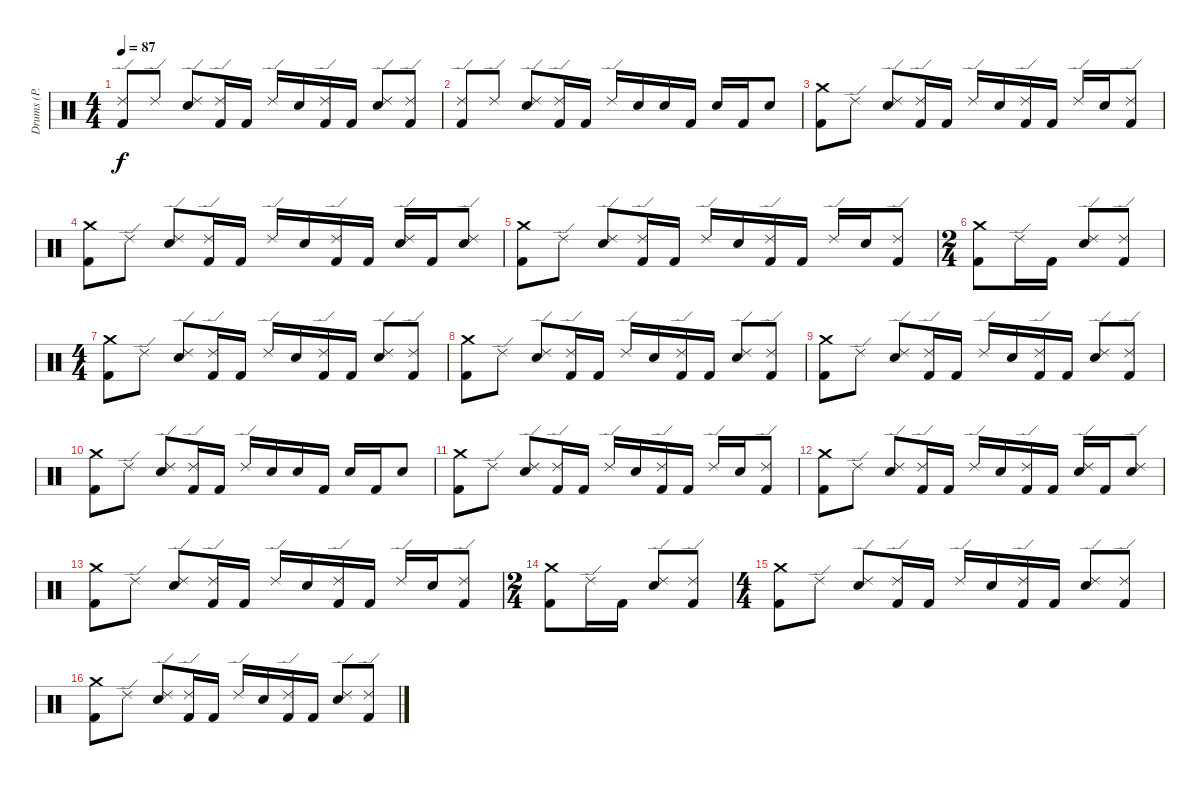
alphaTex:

\track ("Drums (P. Selway)" "Drums (P. ") {instrument percussion}
\staff {score}
\articulation defaults
\ts (4 4)
\tempo 87
\clef neutral
\ks c
("Ride (edge) 2" "Kick (hit) 2").8{dy f} "Ride (edge) 2".8 ("Ride (edge) 2" "Electric Snare (hit)").8 ("Ride (edge) 2" "Kick (hit) 2").16 "Kick (hit) 2".16 "Ride (edge) 2".16 "Electric Snare (hit)".16 ("Ride (edge) 2" "Kick (hit) 2").16 "Kick (hit) 2".16 ("Ride (edge) 2" "Electric Snare (hit)").8 ("Ride (edge) 2" "Kick (hit) 2").8 |
("Ride (edge) 2" "Kick (hit) 2").8 "Ride (edge) 2".8 ("Ride (edge) 2" "Electric Snare (hit)").8 ("Ride (edge) 2" "Kick (hit) 2").16 "Kick (hit) 2".16 "Ride (edge) 2".16 "Electric Snare (hit)".16 "Electric Snare (hit)".16 "Kick (hit) 2".16 "Electric Snare (hit)".16 "Kick (hit) 2".16 "Electric Snare (hit)".8 |
("Crash medium (hit)" "Kick (hit) 2").8 "Ride (edge) 2".8 ("Ride (edge) 2" "Electric Snare (hit)").8 ("Ride (edge) 2" "Kick (hit) 2").16 "Kick (hit) 2".16 "Ride (edge) 2".16 "Electric Snare (hit)".16 ("Ride (edge) 2" "Kick (hit) 2").16 "Kick (hit) 2".16 "Ride (edge) 2".16 "Electric Snare (hit)".16 ("Ride (edge) 2" "Kick (hit) 2").8 |
("Crash medium (hit)" "Kick (hit) 2").8 "Ride (edge) 2".8 ("Ride (edge) 2" "Electric Snare (hit)").8 ("Ride (edge) 2" "Kick (hit) 2").16 "Kick (hit) 2".16 "Ride (edge) 2".16 "Electric Snare (hit)".16 ("Ride (edge) 2" "Kick (hit) 2").16 "Kick (hit) 2".16 ("Ride (edge) 2" "Electric Snare (hit)").16 "Kick (hit) 2".16 ("Ride (edge) 2" "Electric Snare (hit)").8 |
("Crash medium (hit)" "Kick (hit) 2").8 "Ride (edge) 2".8 ("Ride (edge) 2" "Electric Snare (hit)").8 ("Ride (edge) 2" "Kick (hit) 2").16 "Kick (hit) 2".16 "Ride (edge) 2".16 "Electric Snare (hit)".16 ("Ride (edge) 2" "Kick (hit) 2").16 "Kick (hit) 2".16 "Ride (edge) 2".16 "Electric Snare (hit)".16 ("Ride (edge) 2" "Kick (hit) 2").8 |
\ts (2 4)
("Crash medium (hit)" "Kick (hit) 2").8 "Ride (edge) 2".16 "Kick (hit) 2".16 ("Ride (edge) 2" "Electric Snare (hit)").8 ("Ride (edge) 2" "Kick (hit) 2").8 |
\ts (4 4)
("Crash medium (hit)" "Kick (hit) 2").8 "Ride (edge) 2".8 ("Ride (edge) 2" "Electric Snare (hit)").8 ("Ride (edge) 2" "Kick (hit) 2").16 "Kick (hit) 2".16 "Ride (edge) 2".16 "Electric Snare (hit)".16 ("Ride (edge) 2" "Kick (hit) 2").16 "Kick (hit) 2".16 ("Ride (edge) 2" "Electric Snare (hit)").8 ("Ride (edge) 2" "Kick (hit) 2").8 |
("Crash medium (hit)" "Kick (hit) 2").8 "Ride (edge) 2".8 ("Ride (edge) 2" "Electric Snare (hit)").8 ("Ride (edge) 2" "Kick (hit) 2").16 "Kick (hit) 2".16 "Ride (edge) 2".16 "Electric Snare (hit)".16 ("Ride (edge) 2" "Kick (hit) 2").16 "Kick (hit) 2".16 ("Ride (edge) 2" "Electric Snare (hit)").8 ("Ride (edge) 2" "Kick (hit) 2").8 |
("Crash medium (hit)" "Kick (hit) 2").8 "Ride (edge) 2".8 ("Ride (edge) 2" "Electric Snare (hit)").8 ("Ride (edge) 2" "Kick (hit) 2").16 "Kick (hit) 2".16 "Ride (edge) 2".16 "Electric Snare (hit)".16 ("Ride (edge) 2" "Kick (hit) 2").16 "Kick (hit) 2".16 ("Ride (edge) 2" "Electric Snare (hit)").8 ("Ride (edge) 2" "Kick (hit) 2").8 |
("Crash medium (hit)" "Kick (hit) 2").8 "Ride (edge) 2".8 ("Ride (edge) 2" "Electric Snare (hit)").8 ("Ride (edge) 2" "Kick (hit) 2").16 "Kick (hit) 2".16 "Ride (edge) 2".16 "Electric Snare (hit)".16 "Electric Snare (hit)".16 "Kick (hit) 2".16 "Electric Snare (hit)".16 "Kick (hit) 2".16 "Electric Snare (hit)".8 |
("Crash medium (hit)" "Kick (hit) 2").8 "Ride (edge) 2".8 ("Ride (edge) 2" "Electric Snare (hit)").8 ("Ride (edge) 2" "Kick (hit) 2").16 "Kick (hit) 2".16 "Ride (edge) 2".16 "Electric Snare (hit)".16 ("Ride (edge) 2" "Kick (hit) 2").16 "Kick (hit) 2".16 "Ride (edge) 2".16 "Electric Snare (hit)".16 ("Ride (edge) 2" "Kick (hit) 2").8 |
("Crash medium (hit)" "Kick (hit) 2").8 "Ride (edge) 2".8 ("Ride (edge) 2" "Electric Snare (hit)").8 ("Ride (edge) 2" "Kick (hit) 2").16 "Kick (hit) 2".16 "Ride (edge) 2".16 "Electric Snare (hit)".16 ("Ride (edge) 2" "Kick (hit) 2").16 "Kick (hit) 2".16 ("Ride (edge) 2" "Electric Snare (hit)").16 "Kick (hit) 2".16 ("Ride (edge) 2" "Electric Snare (hit)").8 |
("Crash medium (hit)" "Kick (hit) 2").8 "Ride (edge) 2".8 ("Ride (edge) 2" "Electric Snare (hit)").8 ("Ride (edge) 2" "Kick (hit) 2").16 "Kick (hit) 2".16 "Ride (edge) 2".16 "Electric Snare (hit)".16 ("Ride (edge) 2" "Kick (hit) 2").16 "Kick (hit) 2".16 "Ride (edge) 2".16 "Electric Snare (hit)".16 ("Ride (edge) 2" "Kick (hit) 2").8 |
\ts (2 4)
("Crash medium (hit)" "Kick (hit) 2").8 "Ride (edge) 2".16 "Kick (hit) 2".16 ("Ride (edge) 2" "Electric Snare (hit)").8 ("Ride (edge) 2" "Kick (hit) 2").8 |
\ts (4 4)
("Crash medium (hit)" "Kick (hit) 2").8 "Ride (edge) 2".8 ("Ride (edge) 2" "Electric Snare (hit)").8 ("Ride (edge) 2" "Kick (hit) 2").16 "Kick (hit) 2".16 "Ride (edge) 2".16 "Electric Snare (hit)".16 ("Ride (edge) 2" "Kick (hit) 2").16 "Kick (hit) 2".16 ("Ride (edge) 2" "Electric Snare (hit)").8 ("Ride (edge) 2" "Kick (hit) 2").8 |
("Crash medium (hit)" "Kick (hit) 2").8 "Ride (edge) 2".8 ("Ride (edge) 2" "Electric Snare (hit)").8 ("Ride (edge) 2" "Kick (hit) 2").16 "Kick (hit) 2".16 "Ride (edge) 2".16 "Electric Snare (hit)".16 ("Ride (edge) 2" "Kick (hit) 2").16 "Kick (hit) 2".16 ("Ride (edge) 2" "Electric Snare (hit)").8 ("Ride (edge) 2" "Kick (hit) 2").8
